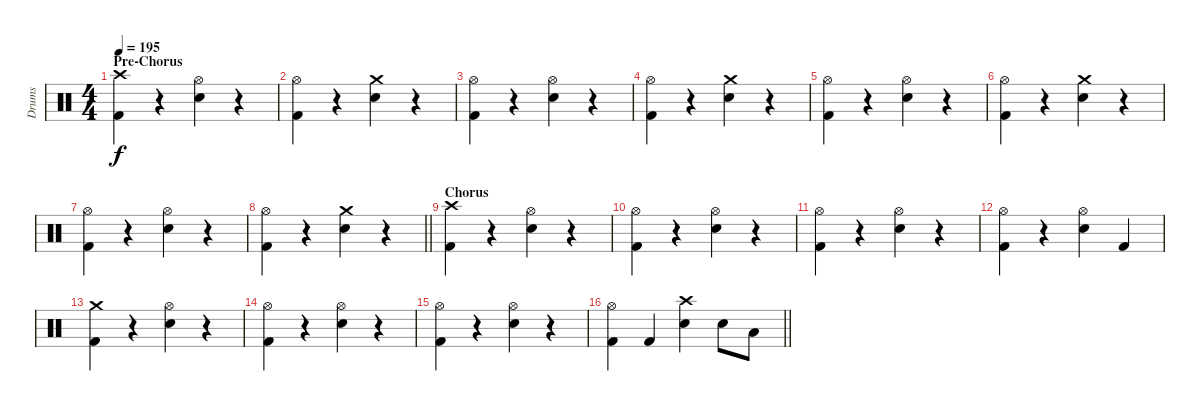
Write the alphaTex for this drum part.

\track ("Drums" "Drums") {instrument percussion}
\staff {score}
\articulation defaults
\ts (4 4)
\section ("" "Pre-Chorus")
\tempo 195
\clef neutral
\ks c
("Crash high (hit)" "Kick (hit) 2").4{dy f} r.4 ("Hi-Hat (open)" "Electric Snare (hit)").4 r.4 |
("Hi-Hat (open)" "Kick (hit) 2").4 r.4 ("Crash medium (hit)" "Electric Snare (hit)").4 r.4 |
("Hi-Hat (open)" "Kick (hit) 2").4 r.4 ("Hi-Hat (open)" "Electric Snare (hit)").4 r.4 |
("Hi-Hat (open)" "Kick (hit) 2").4 r.4 ("Crash medium (hit)" "Electric Snare (hit)").4 r.4 |
("Hi-Hat (open)" "Kick (hit) 2").4 r.4 ("Hi-Hat (open)" "Electric Snare (hit)").4 r.4 |
("Hi-Hat (open)" "Kick (hit) 2").4 r.4 ("Crash medium (hit)" "Electric Snare (hit)").4 r.4 |
("Hi-Hat (open)" "Kick (hit) 2").4 r.4 ("Hi-Hat (open)" "Electric Snare (hit)").4 r.4 |
\barLineRight lightlight
("Hi-Hat (open)" "Kick (hit) 2").4 r.4 ("Crash medium (hit)" "Electric Snare (hit)").4 r.4 |
\section ("" "Chorus")
("Crash high (hit)" "Kick (hit) 2").4 r.4 ("Hi-Hat (open)" "Electric Snare (hit)").4 r.4 |
("Hi-Hat (open)" "Kick (hit) 2").4 r.4 ("Hi-Hat (open)" "Electric Snare (hit)").4 r.4 |
("Hi-Hat (open)" "Kick (hit) 2").4 r.4 ("Hi-Hat (open)" "Electric Snare (hit)").4 r.4 |
("Hi-Hat (open)" "Kick (hit) 2").4 r.4 ("Hi-Hat (open)" "Electric Snare (hit)").4 "Kick (hit) 2".4 |
("Crash medium (hit)" "Kick (hit) 2").4 r.4 ("Hi-Hat (open)" "Electric Snare (hit)").4 r.4 |
("Hi-Hat (open)" "Kick (hit) 2").4 r.4 ("Hi-Hat (open)" "Electric Snare (hit)").4 r.4 |
("Hi-Hat (open)" "Kick (hit) 2").4 r.4 ("Hi-Hat (open)" "Electric Snare (hit)").4 r.4 |
\barLineRight lightlight
("Hi-Hat (open)" "Kick (hit) 2").4 "Kick (hit) 2".4 ("Crash high (hit)" "Electric Snare (hit)").4 "Electric Snare (hit)".8 "Low Tom (hit)".8
